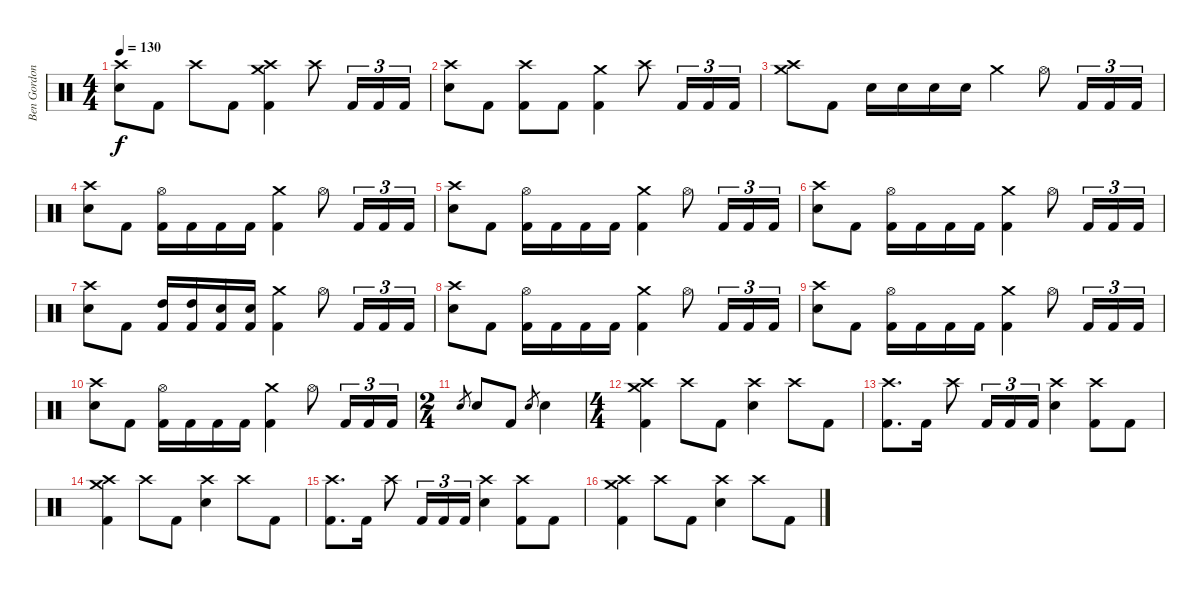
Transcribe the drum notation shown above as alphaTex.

\track ("Ben Gordon" "Ben Gordon") {instrument percussion}
\staff {score}
\articulation defaults
\ts (4 4)
\tempo 130
\clef neutral
\ks c
("Crash high (hit)" "Snare (hit) 2").8{dy f} "Kick (hit) 2".8 "Crash high (hit)".8 "Kick (hit) 2".8 ("Crash medium (hit)" "Crash high (hit)" "Kick (hit) 2").4 "Crash high (hit)".8 "Kick (hit) 2".16{tu (3 2)} "Kick (hit) 2".16{tu (3 2)} "Kick (hit) 2".16{tu (3 2)} |
("Crash high (hit)" "Snare (hit) 2").8 "Kick (hit) 2".8 ("Crash high (hit)" "Kick (hit) 2").8 "Kick (hit) 2".8 ("Crash medium (hit)" "Kick (hit) 2").4 "Crash high (hit)".8 "Kick (hit) 2".16{tu (3 2)} "Kick (hit) 2".16{tu (3 2)} "Kick (hit) 2".16{tu (3 2)} |
("Crash medium (hit)" "Crash high (hit)").8 "Kick (hit) 2".8 "Snare (hit) 2".16 "Snare (hit) 2".16 "Snare (hit) 2".16 "Snare (hit) 2".16 "Crash medium (hit)".4 "Hi-Hat (open)".8 "Kick (hit) 2".16{tu (3 2)} "Kick (hit) 2".16{tu (3 2)} "Kick (hit) 2".16{tu (3 2)} |
("Crash high (hit)" "Snare (hit) 2").8 "Kick (hit) 2".8 ("Hi-Hat (open)" "Kick (hit) 2").16 "Kick (hit) 2".16 "Kick (hit) 2".16 "Kick (hit) 2".16 ("Crash medium (hit)" "Kick (hit) 2").4 "Hi-Hat (open)".8 "Kick (hit) 2".16{tu (3 2)} "Kick (hit) 2".16{tu (3 2)} "Kick (hit) 2".16{tu (3 2)} |
("Crash high (hit)" "Snare (hit) 2").8 "Kick (hit) 2".8 ("Hi-Hat (open)" "Kick (hit) 2").16 "Kick (hit) 2".16 "Kick (hit) 2".16 "Kick (hit) 2".16 ("Crash medium (hit)" "Kick (hit) 2").4 "Hi-Hat (open)".8 "Kick (hit) 2".16{tu (3 2)} "Kick (hit) 2".16{tu (3 2)} "Kick (hit) 2".16{tu (3 2)} |
("Crash high (hit)" "Snare (hit) 2").8 "Kick (hit) 2".8 ("Hi-Hat (open)" "Kick (hit) 2").16 "Kick (hit) 2".16 "Kick (hit) 2".16 "Kick (hit) 2".16 ("Crash medium (hit)" "Kick (hit) 2").4 "Hi-Hat (open)".8 "Kick (hit) 2".16{tu (3 2)} "Kick (hit) 2".16{tu (3 2)} "Kick (hit) 2".16{tu (3 2)} |
("Crash high (hit)" "Snare (hit) 2").8 "Kick (hit) 2".8 ("High Tom (hit)" "Kick (hit) 2").16 ("High Tom (hit)" "Kick (hit) 2").16 ("Snare (hit) 2" "Kick (hit) 2").16 ("Snare (hit) 2" "Kick (hit) 2").16 ("Crash medium (hit)" "Kick (hit) 2").4 "Hi-Hat (open)".8 "Kick (hit) 2".16{tu (3 2)} "Kick (hit) 2".16{tu (3 2)} "Kick (hit) 2".16{tu (3 2)} |
("Crash high (hit)" "Snare (hit) 2").8 "Kick (hit) 2".8 ("Hi-Hat (open)" "Kick (hit) 2").16 "Kick (hit) 2".16 "Kick (hit) 2".16 "Kick (hit) 2".16 ("Crash medium (hit)" "Kick (hit) 2").4 "Hi-Hat (open)".8 "Kick (hit) 2".16{tu (3 2)} "Kick (hit) 2".16{tu (3 2)} "Kick (hit) 2".16{tu (3 2)} |
("Crash high (hit)" "Snare (hit) 2").8 "Kick (hit) 2".8 ("Hi-Hat (open)" "Kick (hit) 2").16 "Kick (hit) 2".16 "Kick (hit) 2".16 "Kick (hit) 2".16 ("Crash medium (hit)" "Kick (hit) 2").4 "Hi-Hat (open)".8 "Kick (hit) 2".16{tu (3 2)} "Kick (hit) 2".16{tu (3 2)} "Kick (hit) 2".16{tu (3 2)} |
("Crash high (hit)" "Snare (hit) 2").8 "Kick (hit) 2".8 ("Hi-Hat (open)" "Kick (hit) 2").16 "Kick (hit) 2".16 "Kick (hit) 2".16 "Kick (hit) 2".16 ("Crash medium (hit)" "Kick (hit) 2").4 "Hi-Hat (open)".8 "Kick (hit) 2".16{tu (3 2)} "Kick (hit) 2".16{tu (3 2)} "Kick (hit) 2".16{tu (3 2)} |
\ts (2 4)
"Snare (hit) 2".8{gr} "Snare (hit) 2".8 "Kick (hit) 2".8 "Snare (hit) 2".8{gr} "Snare (hit) 2".4 |
\ts (4 4)
("Crash medium (hit)" "Crash high (hit)" "Kick (hit) 2").4 "Crash high (hit)".8 "Kick (hit) 2".8 ("Crash high (hit)" "Snare (hit) 2").4 "Crash high (hit)".8 "Kick (hit) 2".8 |
("Crash high (hit)" "Kick (hit) 2").8{d} "Kick (hit) 2".16 "Crash high (hit)".8 "Kick (hit) 2".16{tu (3 2)} "Kick (hit) 2".16{tu (3 2)} "Kick (hit) 2".16{tu (3 2)} ("Crash high (hit)" "Snare (hit) 2").4 ("Crash high (hit)" "Kick (hit) 2").8 "Kick (hit) 2".8 |
("Crash medium (hit)" "Crash high (hit)" "Kick (hit) 2").4 "Crash high (hit)".8 "Kick (hit) 2".8 ("Crash high (hit)" "Snare (hit) 2").4 "Crash high (hit)".8 "Kick (hit) 2".8 |
("Crash high (hit)" "Kick (hit) 2").8{d} "Kick (hit) 2".16 "Crash high (hit)".8 "Kick (hit) 2".16{tu (3 2)} "Kick (hit) 2".16{tu (3 2)} "Kick (hit) 2".16{tu (3 2)} ("Crash high (hit)" "Snare (hit) 2").4 ("Crash high (hit)" "Kick (hit) 2").8 "Kick (hit) 2".8 |
("Crash medium (hit)" "Crash high (hit)" "Kick (hit) 2").4 "Crash high (hit)".8 "Kick (hit) 2".8 ("Crash high (hit)" "Snare (hit) 2").4 "Crash high (hit)".8 "Kick (hit) 2".8
